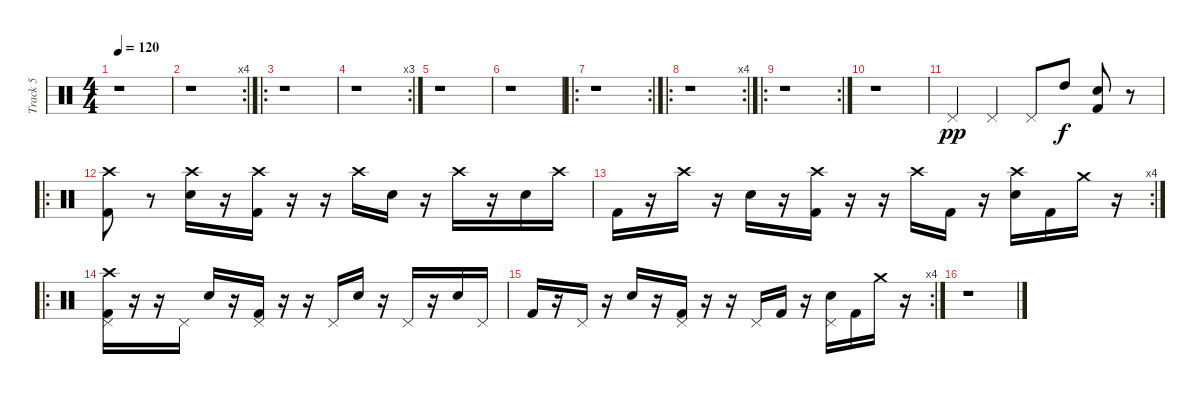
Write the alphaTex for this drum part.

\track ("Track 5" "Track 5") {instrument percussion}
\staff {score}
\articulation defaults
\ts (4 4)
\tempo 120
\clef neutral
\ks c
r.1{dy pp} |
\rc 4
r.1 |
\ro
r.1 |
\rc 3
r.1 |
r.1 |
r.1 |
\ro
\rc 2
r.1 |
\ro
\rc 4
r.1 |
\ro
\rc 2
r.1 |
r.1 |
"Pedal Hi-Hat (hit)".4 "Pedal Hi-Hat (hit)".4 "Pedal Hi-Hat (hit)".8 "High Tom (hit)".8{dy f} ("Electric Snare (hit)" "Kick (hit) 2").8 r.8 |
\ro
("Kick (hit) 2" "Crash high (hit)").8 r.8 ("Electric Snare (hit)" "Crash high (hit)").16 r.16 ("Kick (hit) 2" "Crash high (hit)").16 r.16 r.16 "Crash high (hit)".16 "Electric Snare (hit)".16 r.16 "Crash high (hit)".16 r.16 "Electric Snare (hit)".16 "Crash high (hit)".16 |
\rc 4 "Kick (hit) 2".16
r.16 "Crash high (hit)".16 r.16 "Electric Snare (hit)".16 r.16 ("Kick (hit) 2" "Crash high (hit)").16 r.16 r.16 "Crash high (hit)".16 "Kick (hit) 2".16 r.16 ("Electric Snare (hit)" "Crash high (hit)").16 "Kick (hit) 2".16 "Crash medium (hit)".16 r.16 |
\ro
("Kick (hit) 2" "Pedal Hi-Hat (hit)" "Crash high (hit)").16 r.16 r.16 "Pedal Hi-Hat (hit)".16 "Electric Snare (hit)".16 r.16 ("Kick (hit) 2" "Pedal Hi-Hat (hit)").16 r.16 r.16 "Pedal Hi-Hat (hit)".16 "Electric Snare (hit)".16 r.16 "Pedal Hi-Hat (hit)".16 r.16 "Electric Snare (hit)".16 "Pedal Hi-Hat (hit)".16 |
\rc 4 "Kick (hit) 2".16
r.16 "Pedal Hi-Hat (hit)".16 r.16 "Electric Snare (hit)".16 r.16 ("Kick (hit) 2" "Pedal Hi-Hat (hit)").16 r.16 r.16 "Pedal Hi-Hat (hit)".16 "Kick (hit) 2".16 r.16 ("Electric Snare (hit)" "Pedal Hi-Hat (hit)").16 "Kick (hit) 2".16 "Crash medium (hit)".16 r.16 |
r.1
